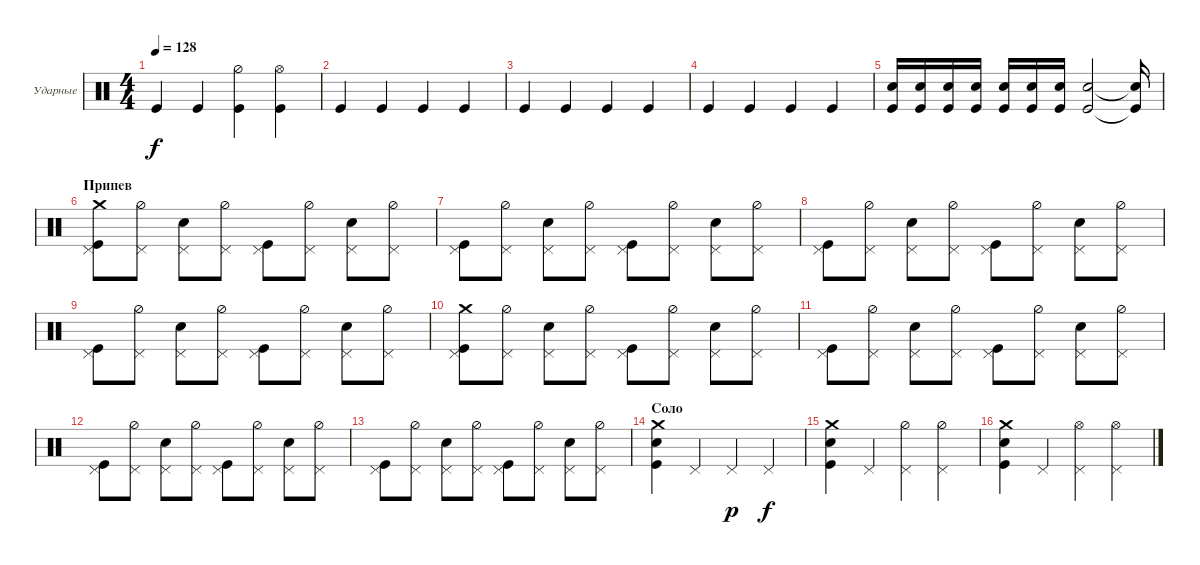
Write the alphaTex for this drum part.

\defaultSystemsLayout 4
\bracketExtendMode groupsimilarinstruments
\firstSystemTrackNameOrientation horizontal
\otherSystemsTrackNameOrientation horizontal
\track ("Е. Кулаков" "Ударные") {instrument percussion}
\staff {score}
\articulation defaults
\ts (4 4)
\tempo 128
\clef neutral
\ks c "Kick (hit)".4{dy f} "Kick (hit)".4
("Kick (hit)" "Hi-Hat (half)").4 ("Kick (hit)" "Hi-Hat (open)").4 |
"Kick (hit)".4 "Kick (hit)".4 "Kick (hit)".4 "Kick (hit)".4 |
"Kick (hit)".4 "Kick (hit)".4 "Kick (hit)".4 "Kick (hit)".4 |
"Kick (hit)".4 "Kick (hit)".4 "Kick (hit)".4 "Kick (hit)".4 |
("Kick (hit)" "Snare (hit) 2").16 ("Kick (hit)" "Snare (hit) 2").16 ("Kick (hit)" "Snare (hit) 2").16 ("Kick (hit)" "Snare (hit) 2").16 ("Kick (hit)" "Snare (hit) 2").16 ("Kick (hit)" "Snare (hit) 2").16 ("Kick (hit)" "Snare (hit) 2").16 ("Kick (hit)" "Snare (hit) 2").2 ("Kick (hit)"{t} "Snare (hit) 2"{t}).16 |
\section ("" "Припев")
("Kick (hit)" "Pedal Hi-Hat (hit)" "Crash medium (hit)").8 ("Hi-Hat (half)" "Pedal Hi-Hat (hit)").8 ("Pedal Hi-Hat (hit)" "Snare (hit) 2").8 ("Hi-Hat (half)" "Pedal Hi-Hat (hit)").8 ("Kick (hit)" "Pedal Hi-Hat (hit)").8 ("Hi-Hat (half)" "Pedal Hi-Hat (hit)").8 ("Pedal Hi-Hat (hit)" "Snare (hit) 2").8 ("Hi-Hat (half)" "Pedal Hi-Hat (hit)").8 |
("Kick (hit)" "Pedal Hi-Hat (hit)").8 ("Hi-Hat (half)" "Pedal Hi-Hat (hit)").8 ("Pedal Hi-Hat (hit)" "Snare (hit) 2").8 ("Hi-Hat (half)" "Pedal Hi-Hat (hit)").8 ("Kick (hit)" "Pedal Hi-Hat (hit)").8 ("Hi-Hat (half)" "Pedal Hi-Hat (hit)").8 ("Pedal Hi-Hat (hit)" "Snare (hit) 2").8 ("Hi-Hat (half)" "Pedal Hi-Hat (hit)").8 |
("Kick (hit)" "Pedal Hi-Hat (hit)").8 ("Hi-Hat (half)" "Pedal Hi-Hat (hit)").8 ("Pedal Hi-Hat (hit)" "Snare (hit) 2").8 ("Hi-Hat (half)" "Pedal Hi-Hat (hit)").8 ("Kick (hit)" "Pedal Hi-Hat (hit)").8 ("Hi-Hat (half)" "Pedal Hi-Hat (hit)").8 ("Pedal Hi-Hat (hit)" "Snare (hit) 2").8 ("Hi-Hat (half)" "Pedal Hi-Hat (hit)").8 |
("Kick (hit)" "Pedal Hi-Hat (hit)").8 ("Hi-Hat (half)" "Pedal Hi-Hat (hit)").8 ("Pedal Hi-Hat (hit)" "Snare (hit) 2").8 ("Hi-Hat (half)" "Pedal Hi-Hat (hit)").8 ("Kick (hit)" "Pedal Hi-Hat (hit)").8 ("Hi-Hat (half)" "Pedal Hi-Hat (hit)").8 ("Pedal Hi-Hat (hit)" "Snare (hit) 2").8 ("Hi-Hat (half)" "Pedal Hi-Hat (hit)").8 |
("Kick (hit)" "Pedal Hi-Hat (hit)" "Crash medium (hit)").8 ("Hi-Hat (half)" "Pedal Hi-Hat (hit)").8 ("Pedal Hi-Hat (hit)" "Snare (hit) 2").8 ("Hi-Hat (half)" "Pedal Hi-Hat (hit)").8 ("Kick (hit)" "Pedal Hi-Hat (hit)").8 ("Hi-Hat (half)" "Pedal Hi-Hat (hit)").8 ("Pedal Hi-Hat (hit)" "Snare (hit) 2").8 ("Hi-Hat (half)" "Pedal Hi-Hat (hit)").8 |
("Kick (hit)" "Pedal Hi-Hat (hit)").8 ("Hi-Hat (half)" "Pedal Hi-Hat (hit)").8 ("Pedal Hi-Hat (hit)" "Snare (hit) 2").8 ("Hi-Hat (half)" "Pedal Hi-Hat (hit)").8 ("Kick (hit)" "Pedal Hi-Hat (hit)").8 ("Hi-Hat (half)" "Pedal Hi-Hat (hit)").8 ("Pedal Hi-Hat (hit)" "Snare (hit) 2").8 ("Hi-Hat (half)" "Pedal Hi-Hat (hit)").8 |
("Kick (hit)" "Pedal Hi-Hat (hit)").8 ("Hi-Hat (half)" "Pedal Hi-Hat (hit)").8 ("Pedal Hi-Hat (hit)" "Snare (hit) 2").8 ("Hi-Hat (half)" "Pedal Hi-Hat (hit)").8 ("Kick (hit)" "Pedal Hi-Hat (hit)").8 ("Hi-Hat (half)" "Pedal Hi-Hat (hit)").8 ("Pedal Hi-Hat (hit)" "Snare (hit) 2").8 ("Hi-Hat (half)" "Pedal Hi-Hat (hit)").8 |
("Kick (hit)" "Pedal Hi-Hat (hit)").8 ("Hi-Hat (half)" "Pedal Hi-Hat (hit)").8 ("Pedal Hi-Hat (hit)" "Snare (hit) 2").8 ("Hi-Hat (half)" "Pedal Hi-Hat (hit)").8 ("Kick (hit)" "Pedal Hi-Hat (hit)").8 ("Hi-Hat (half)" "Pedal Hi-Hat (hit)").8 ("Pedal Hi-Hat (hit)" "Snare (hit) 2").8 ("Hi-Hat (half)" "Pedal Hi-Hat (hit)").8 |
\section ("" "Соло")
("Snare (hit) 2" "Kick (hit)" "Crash medium (hit)").4 "Pedal Hi-Hat (hit)".4 "Pedal Hi-Hat (hit)".4{dy p} "Pedal Hi-Hat (hit)".4{dy f} |
("Snare (hit) 2" "Kick (hit)" "Crash medium (hit)").4 "Pedal Hi-Hat (hit)".4 ("Pedal Hi-Hat (hit)" "Hi-Hat (half)").4 ("Pedal Hi-Hat (hit)" "Hi-Hat (half)").4 |
("Snare (hit) 2" "Kick (hit)" "Crash medium (hit)").4 "Pedal Hi-Hat (hit)".4 ("Pedal Hi-Hat (hit)" "Hi-Hat (open)").4 ("Pedal Hi-Hat (hit)" "Hi-Hat (open)").4
